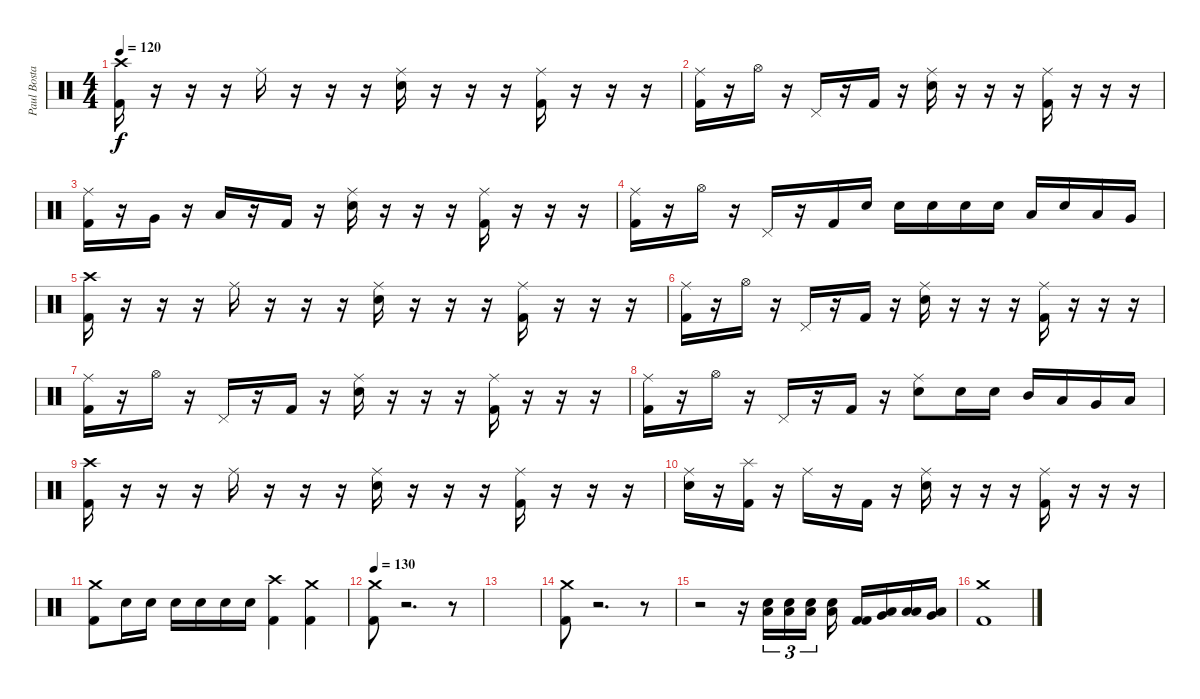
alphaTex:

\track ("Paul Bostaph" "Paul Bosta") {instrument percussion}
\staff {score}
\articulation defaults
\ts (4 4)
\tempo 120
\clef neutral
\ks c
("Crash high (hit)" "Kick (hit) 2").16{dy f} r.16 r.16 r.16 "Ride (middle)".16 r.16 r.16 r.16 ("Ride (middle)" "Snare (hit) 2").16 r.16 r.16 r.16 ("Ride (middle)" "Kick (hit) 2").16 r.16 r.16 r.16 |
("Ride (middle)" "Kick (hit) 2").16 r.16 "Hi-Hat (open)".16 r.16 "Pedal Hi-Hat (hit)".16 r.16 "Kick (hit) 2".16 r.16 ("Ride (middle)" "Snare (hit) 2").16 r.16 r.16 r.16 ("Ride (middle)" "Kick (hit) 2").16 r.16 r.16 r.16 |
("Ride (middle)" "Kick (hit) 2").16 r.16 "Very Low Tom (hit)".16 r.16 "Low Floor Tom (hit)".16 r.16 "Kick (hit) 2".16 r.16 ("Ride (middle)" "Snare (hit) 2").16 r.16 r.16 r.16 ("Ride (middle)" "Kick (hit) 2").16 r.16 r.16 r.16 |
("Ride (middle)" "Kick (hit) 2").16 r.16 "Hi-Hat (open)".16 r.16 "Pedal Hi-Hat (hit)".16 r.16 "Kick (hit) 2".16 "Snare (hit) 2".16 "Snare (hit) 2".16 "Snare (hit) 2".16 "Snare (hit) 2".16 "Snare (hit) 2".16 "Low Tom (hit)".16 "Snare (hit) 2".16 "Low Tom (hit)".16 "Very Low Tom (hit)".16 |
("Crash high (hit)" "Kick (hit) 2").16 r.16 r.16 r.16 "Ride (middle)".16 r.16 r.16 r.16 ("Ride (middle)" "Snare (hit) 2").16 r.16 r.16 r.16 ("Ride (middle)" "Kick (hit) 2").16 r.16 r.16 r.16 |
("Ride (middle)" "Kick (hit) 2").16 r.16 "Hi-Hat (open)".16 r.16 "Pedal Hi-Hat (hit)".16 r.16 "Kick (hit) 2".16 r.16 ("Ride (middle)" "Snare (hit) 2").16 r.16 r.16 r.16 ("Ride (middle)" "Kick (hit) 2").16 r.16 r.16 r.16 |
("Ride (middle)" "Kick (hit) 2").16 r.16 "Hi-Hat (open)".16 r.16 "Pedal Hi-Hat (hit)".16 r.16 "Kick (hit) 2".16 r.16 ("Ride (middle)" "Snare (hit) 2").16 r.16 r.16 r.16 ("Ride (middle)" "Kick (hit) 2").16 r.16 r.16 r.16 |
("Ride (middle)" "Kick (hit) 2").16 r.16 "Hi-Hat (open)".16 r.16 "Pedal Hi-Hat (hit)".16 r.16 "Kick (hit) 2".16 r.16 ("Ride (middle)" "Snare (hit) 2").8 "Snare (hit) 2".16 "Snare (hit) 2".16 "Mid Tom (hit)".16 "Low Tom (hit)".16 "Very Low Tom (hit)".16 "Low Floor Tom (hit)".16 |
("Crash high (hit)" "Kick (hit) 2").16 r.16 r.16 r.16 "Ride (middle)".16 r.16 r.16 r.16 ("Ride (middle)" "Snare (hit) 2").16 r.16 r.16 r.16 ("Ride (middle)" "Kick (hit) 2").16 r.16 r.16 r.16 |
("Ride (middle)" "Snare (hit) 2").16 r.16 ("Splash (hit)" "Kick (hit) 2").16 r.16 "Ride (middle)".16 r.16 "Kick (hit) 2".16 r.16 ("Ride (middle)" "Snare (hit) 2").16 r.16 r.16 r.16 ("Ride (middle)" "Kick (hit) 2").16 r.16 r.16 r.16 |
("Crash medium (hit)" "Kick (hit) 2").8 "Snare (hit) 2".16 "Snare (hit) 2".16 "Snare (hit) 2".16 "Snare (hit) 2".16 "Snare (hit) 2".16 "Snare (hit) 2".16 ("Crash high (hit)" "Kick (hit) 2").4 ("Crash medium (hit)" "Kick (hit) 2").4 |
\tempo 130
("Crash medium (hit)" "Kick (hit) 2").8 r.2{d} r.8 |
|
("Crash medium (hit)" "Kick (hit) 2").8 r.2{d} r.8 |
r.2 r.16 ("Snare (hit) 2" "Low Floor Tom (hit)").16{tu (3 2)} ("Snare (hit) 2" "Low Floor Tom (hit)").16{tu (3 2)} ("Snare (hit) 2" "Low Floor Tom (hit)").16{tu (3 2) beam splitsecondary} ("Snare (hit) 2" "Low Floor Tom (hit)").16 ("Kick (hit) 2" "Kick (hit) 2").16 ("Low Floor Tom (hit)" "Very Low Tom (hit)").16 ("Low Floor Tom (hit)" "Low Floor Tom (hit)").16 ("Low Floor Tom (hit)" "Very Low Tom (hit)").16 |
("Crash medium (hit)" "Kick (hit) 2").1
